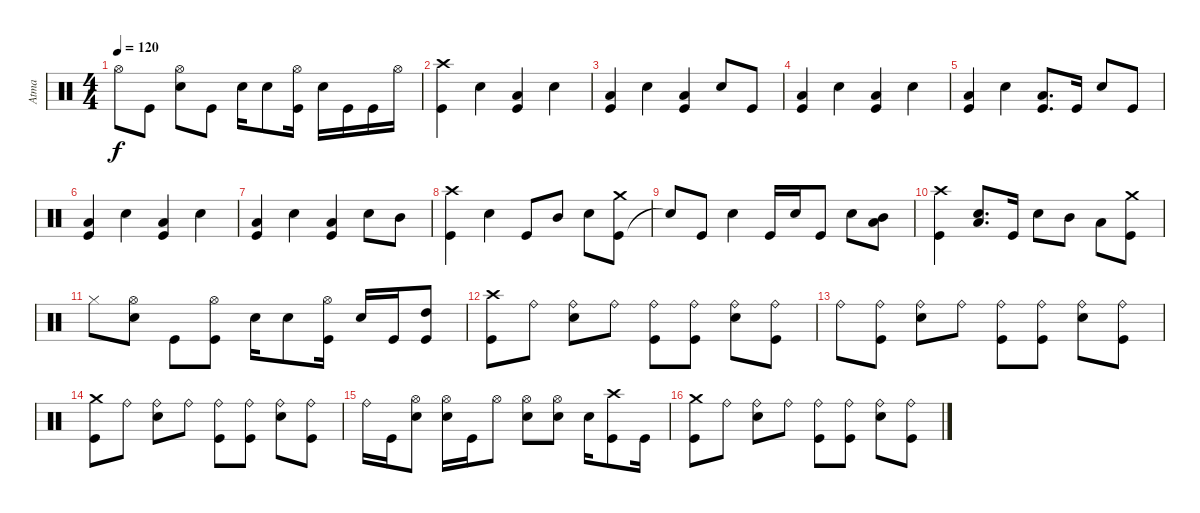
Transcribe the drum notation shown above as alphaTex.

\track ("Atma" "Atma") {instrument percussion}
\staff {score}
\articulation defaults
\ts (4 4)
\tempo 120
\clef neutral
\ks c "Hi-Hat (open)".8{dy f} "Kick (hit)".8
("Snare (hit) 2" "Hi-Hat (open)").8 "Kick (hit)".8 "Snare (hit) 2".16 "Snare (hit) 2".8 ("Kick (hit)" "Hi-Hat (open)").16 "Snare (hit) 2".16 "Kick (hit)".16 "Kick (hit)".16 "Hi-Hat (open)".16 |
("Kick (hit)" "Crash high (hit)").4 "Snare (hit) 2".4 ("Kick (hit)" "Low Floor Tom (hit)").4 "Snare (hit) 2".4 |
("Kick (hit)" "Low Floor Tom (hit)").4 "Snare (hit) 2".4 ("Kick (hit)" "Low Floor Tom (hit)").4 "Snare (hit) 2".8 "Kick (hit)".8 |
("Kick (hit)" "Low Floor Tom (hit)").4 "Snare (hit) 2".4 ("Kick (hit)" "Low Floor Tom (hit)").4 "Snare (hit) 2".4 |
("Kick (hit)" "Low Floor Tom (hit)").4 "Snare (hit) 2".4 ("Kick (hit)" "Low Floor Tom (hit)").8{d} "Kick (hit)".16 "Snare (hit) 2".8 "Kick (hit)".8 |
("Kick (hit)" "Low Floor Tom (hit)").4 "Snare (hit) 2".4 ("Kick (hit)" "Low Floor Tom (hit)").4 "Snare (hit) 2".4 |
("Kick (hit)" "Low Floor Tom (hit)").4 "Snare (hit) 2".4 ("Kick (hit)" "Low Floor Tom (hit)").4 "Snare (hit) 2".8 "Mid Tom (hit)".8 |
("Kick (hit)" "Crash high (hit)").4 "Snare (hit) 2".4 "Kick (hit)".8 "Mid Tom (hit)".8 "Snare (hit) 2".8 ("Kick (hit)" "Crash medium (hit)").8 |
"Snare (hit)"{t}.8 "Kick (hit)".8 "Snare (hit) 2".4 "Kick (hit)".16 "Snare (hit) 2".16 "Kick (hit)".8 "Snare (hit) 2".8 ("Mid Tom (hit)" "Low Tom (hit)").8 |
("Kick (hit)" "Crash high (hit)").4 ("Snare (hit) 2" "Low Tom (hit)").8{d} "Kick (hit)".16 "Snare (hit) 2".8 "Mid Tom (hit)".8 "Low Tom (hit)".8 ("Kick (hit)" "Crash medium (hit)").8 |
"Hi-Hat (closed)".8 ("Snare (hit) 2" "Hi-Hat (open)").8 "Kick (hit)".8 ("Kick (hit)" "Hi-Hat (open)").8 "Snare (hit) 2".16 "Snare (hit) 2".8 ("Kick (hit)" "Hi-Hat (open)").16 "Snare (hit) 2".16 "Kick (hit)".16 ("Kick (hit)" "High Tom (hit)").8 |
("Kick (hit)" "Crash high (hit)").8 "Ride (bell)".8 ("Snare (hit) 2" "Ride (bell)").8 "Ride (bell)".8 ("Kick (hit)" "Ride (bell)").8 ("Kick (hit)" "Ride (bell)").8 ("Snare (hit) 2" "Ride (bell)").8 ("Kick (hit)" "Ride (bell)").8 |
"Ride (bell)".8 ("Kick (hit)" "Ride (bell)").8 ("Snare (hit) 2" "Ride (bell)").8 "Ride (bell)".8 ("Kick (hit)" "Ride (bell)").8 ("Kick (hit)" "Ride (bell)").8 ("Snare (hit) 2" "Ride (bell)").8 ("Kick (hit)" "Ride (bell)").8 |
("Kick (hit)" "Crash medium (hit)").8 "Ride (bell)".8 ("Snare (hit) 2" "Ride (bell)").8 "Ride (bell)".8 ("Kick (hit)" "Ride (bell)").8 ("Kick (hit)" "Ride (bell)").8 ("Snare (hit) 2" "Ride (bell)").8 ("Kick (hit)" "Ride (bell)").8 |
"Ride (bell)".16 "Kick (hit)".16 ("Snare (hit) 2" "Hi-Hat (open)").8 ("Snare (hit) 2" "Hi-Hat (open)").16 "Kick (hit)".16 "Hi-Hat (open)".8 ("Snare (hit) 2" "Hi-Hat (open)").8 ("Snare (hit) 2" "Hi-Hat (open)").8 "Snare (hit) 2".16 ("Kick (hit)" "Crash high (hit)").8 "Kick (hit)".16 |
("Kick (hit)" "Crash medium (hit)").8 "Ride (bell)".8 ("Snare (hit) 2" "Ride (bell)").8 "Ride (bell)".8 ("Kick (hit)" "Ride (bell)").8 ("Kick (hit)" "Ride (bell)").8 ("Snare (hit) 2" "Ride (bell)").8 ("Kick (hit)" "Ride (bell)").8
